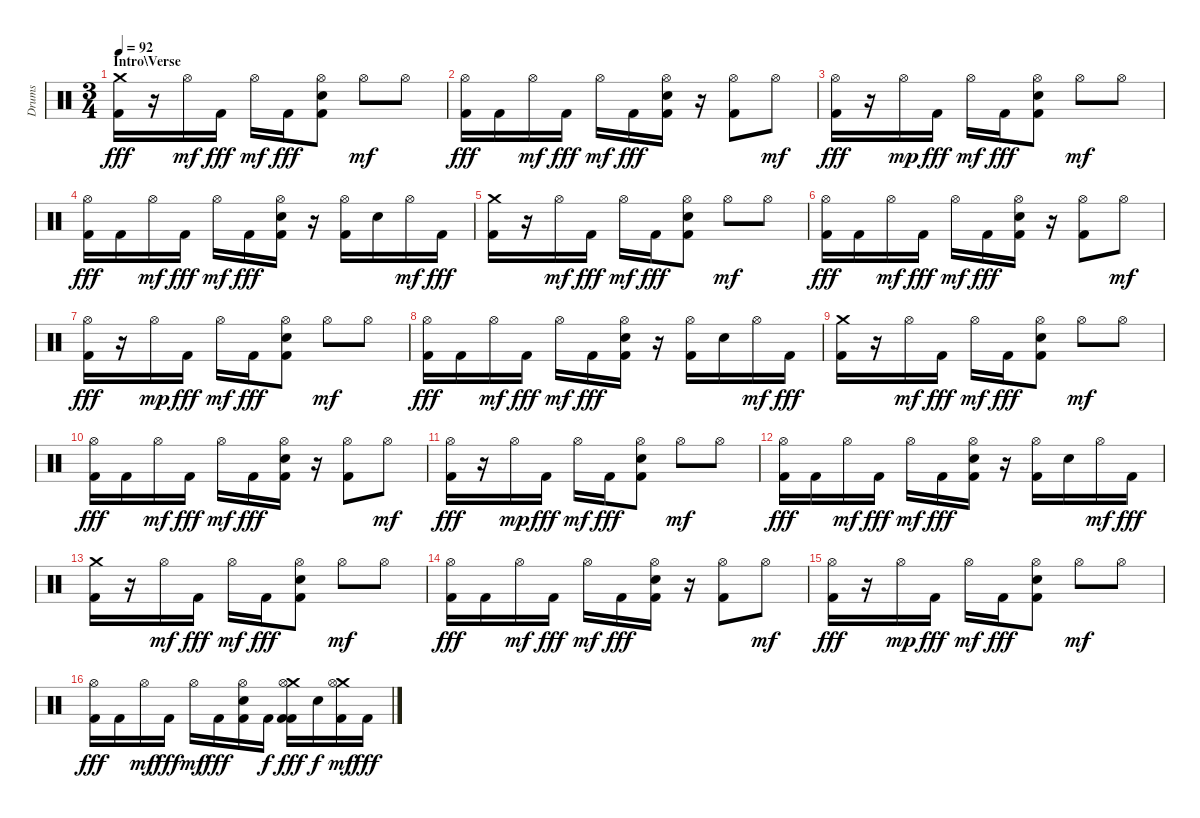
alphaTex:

\track ("Drums" "Drums") {instrument percussion}
\staff {score}
\articulation defaults
\ts (3 4)
\section ("" "Intro\\Verse")
\tempo 92
\clef neutral
\ks c
("Crash medium (hit)" "Kick (hit) 2").16{dy fff} r.16 "Hi-Hat (open)".16{dy mf} "Kick (hit) 2".16{dy fff} "Hi-Hat (open)".16{dy mf} "Kick (hit) 2".16{dy fff} ("Hi-Hat (open)" "Snare (hit) 2" "Kick (hit) 2").8 "Hi-Hat (open)".8{dy mf} "Hi-Hat (open)".8 |
("Hi-Hat (open)" "Kick (hit) 2").16{dy fff} "Kick (hit) 2".16 "Hi-Hat (open)".16{dy mf} "Kick (hit) 2".16{dy fff} "Hi-Hat (open)".16{dy mf} "Kick (hit) 2".16{dy fff} ("Hi-Hat (open)" "Snare (hit) 2" "Kick (hit) 2").16 r.16 ("Hi-Hat (open)" "Kick (hit) 2").8 "Hi-Hat (open)".8{dy mf} |
("Hi-Hat (open)" "Kick (hit) 2").16{dy fff} r.16 "Hi-Hat (open)".16{dy mp} "Kick (hit) 2".16{dy fff} "Hi-Hat (open)".16{dy mf} "Kick (hit) 2".16{dy fff} ("Hi-Hat (open)" "Snare (hit) 2" "Kick (hit) 2").8 "Hi-Hat (open)".8{dy mf} "Hi-Hat (open)".8 |
("Hi-Hat (open)" "Kick (hit) 2").16{dy fff} "Kick (hit) 2".16 "Hi-Hat (open)".16{dy mf} "Kick (hit) 2".16{dy fff} "Hi-Hat (open)".16{dy mf} "Kick (hit) 2".16{dy fff} ("Hi-Hat (open)" "Snare (hit) 2" "Kick (hit) 2").16 r.16 ("Hi-Hat (open)" "Kick (hit) 2").16 "Snare (hit) 2".16 "Hi-Hat (open)".16{dy mf} "Kick (hit) 2".16{dy fff} |
("Crash medium (hit)" "Kick (hit) 2").16 r.16 "Hi-Hat (open)".16{dy mf} "Kick (hit) 2".16{dy fff} "Hi-Hat (open)".16{dy mf} "Kick (hit) 2".16{dy fff} ("Hi-Hat (open)" "Snare (hit) 2" "Kick (hit) 2").8 "Hi-Hat (open)".8{dy mf} "Hi-Hat (open)".8 |
("Hi-Hat (open)" "Kick (hit) 2").16{dy fff} "Kick (hit) 2".16 "Hi-Hat (open)".16{dy mf} "Kick (hit) 2".16{dy fff} "Hi-Hat (open)".16{dy mf} "Kick (hit) 2".16{dy fff} ("Hi-Hat (open)" "Snare (hit) 2" "Kick (hit) 2").16 r.16 ("Hi-Hat (open)" "Kick (hit) 2").8 "Hi-Hat (open)".8{dy mf} |
("Hi-Hat (open)" "Kick (hit) 2").16{dy fff} r.16 "Hi-Hat (open)".16{dy mp} "Kick (hit) 2".16{dy fff} "Hi-Hat (open)".16{dy mf} "Kick (hit) 2".16{dy fff} ("Hi-Hat (open)" "Snare (hit) 2" "Kick (hit) 2").8 "Hi-Hat (open)".8{dy mf} "Hi-Hat (open)".8 |
("Hi-Hat (open)" "Kick (hit) 2").16{dy fff} "Kick (hit) 2".16 "Hi-Hat (open)".16{dy mf} "Kick (hit) 2".16{dy fff} "Hi-Hat (open)".16{dy mf} "Kick (hit) 2".16{dy fff} ("Hi-Hat (open)" "Snare (hit) 2" "Kick (hit) 2").16 r.16 ("Hi-Hat (open)" "Kick (hit) 2").16 "Snare (hit) 2".16 "Hi-Hat (open)".16{dy mf} "Kick (hit) 2".16{dy fff} |
("Crash medium (hit)" "Kick (hit) 2").16 r.16 "Hi-Hat (open)".16{dy mf} "Kick (hit) 2".16{dy fff} "Hi-Hat (open)".16{dy mf} "Kick (hit) 2".16{dy fff} ("Hi-Hat (open)" "Snare (hit) 2" "Kick (hit) 2").8 "Hi-Hat (open)".8{dy mf} "Hi-Hat (open)".8 |
("Hi-Hat (open)" "Kick (hit) 2").16{dy fff} "Kick (hit) 2".16 "Hi-Hat (open)".16{dy mf} "Kick (hit) 2".16{dy fff} "Hi-Hat (open)".16{dy mf} "Kick (hit) 2".16{dy fff} ("Hi-Hat (open)" "Snare (hit) 2" "Kick (hit) 2").16 r.16 ("Hi-Hat (open)" "Kick (hit) 2").8 "Hi-Hat (open)".8{dy mf} |
("Hi-Hat (open)" "Kick (hit) 2").16{dy fff} r.16 "Hi-Hat (open)".16{dy mp} "Kick (hit) 2".16{dy fff} "Hi-Hat (open)".16{dy mf} "Kick (hit) 2".16{dy fff} ("Hi-Hat (open)" "Snare (hit) 2" "Kick (hit) 2").8 "Hi-Hat (open)".8{dy mf} "Hi-Hat (open)".8 |
("Hi-Hat (open)" "Kick (hit) 2").16{dy fff} "Kick (hit) 2".16 "Hi-Hat (open)".16{dy mf} "Kick (hit) 2".16{dy fff} "Hi-Hat (open)".16{dy mf} "Kick (hit) 2".16{dy fff} ("Hi-Hat (open)" "Snare (hit) 2" "Kick (hit) 2").16 r.16 ("Hi-Hat (open)" "Kick (hit) 2").16 "Snare (hit) 2".16 "Hi-Hat (open)".16{dy mf} "Kick (hit) 2".16{dy fff} |
("Crash medium (hit)" "Kick (hit) 2").16 r.16 "Hi-Hat (open)".16{dy mf} "Kick (hit) 2".16{dy fff} "Hi-Hat (open)".16{dy mf} "Kick (hit) 2".16{dy fff} ("Hi-Hat (open)" "Snare (hit) 2" "Kick (hit) 2").8 "Hi-Hat (open)".8{dy mf} "Hi-Hat (open)".8 |
("Hi-Hat (open)" "Kick (hit) 2").16{dy fff} "Kick (hit) 2".16 "Hi-Hat (open)".16{dy mf} "Kick (hit) 2".16{dy fff} "Hi-Hat (open)".16{dy mf} "Kick (hit) 2".16{dy fff} ("Hi-Hat (open)" "Snare (hit) 2" "Kick (hit) 2").16 r.16 ("Hi-Hat (open)" "Kick (hit) 2").8 "Hi-Hat (open)".8{dy mf} |
("Hi-Hat (open)" "Kick (hit) 2").16{dy fff} r.16 "Hi-Hat (open)".16{dy mp} "Kick (hit) 2".16{dy fff} "Hi-Hat (open)".16{dy mf} "Kick (hit) 2".16{dy fff} ("Hi-Hat (open)" "Snare (hit) 2" "Kick (hit) 2").8 "Hi-Hat (open)".8{dy mf} "Hi-Hat (open)".8 |
("Hi-Hat (open)" "Kick (hit) 2").16{dy fff} "Kick (hit) 2".16 "Hi-Hat (open)".16{dy mf} "Kick (hit) 2".16{dy fff} "Hi-Hat (open)".16{dy mf} "Kick (hit) 2".16{dy fff} ("Hi-Hat (open)" "Snare (hit) 2" "Kick (hit) 2").16 "Kick (hit) 2".16{dy f} ("Crash medium (hit)" "Hi-Hat (open)" "Kick (hit) 2" "Kick (hit) 2").16{dy fff} "Snare (hit) 2".16{dy f} ("Crash medium (hit)" "Hi-Hat (open)" "Kick (hit) 2").16{dy mf} "Kick (hit) 2".16{dy fff}
